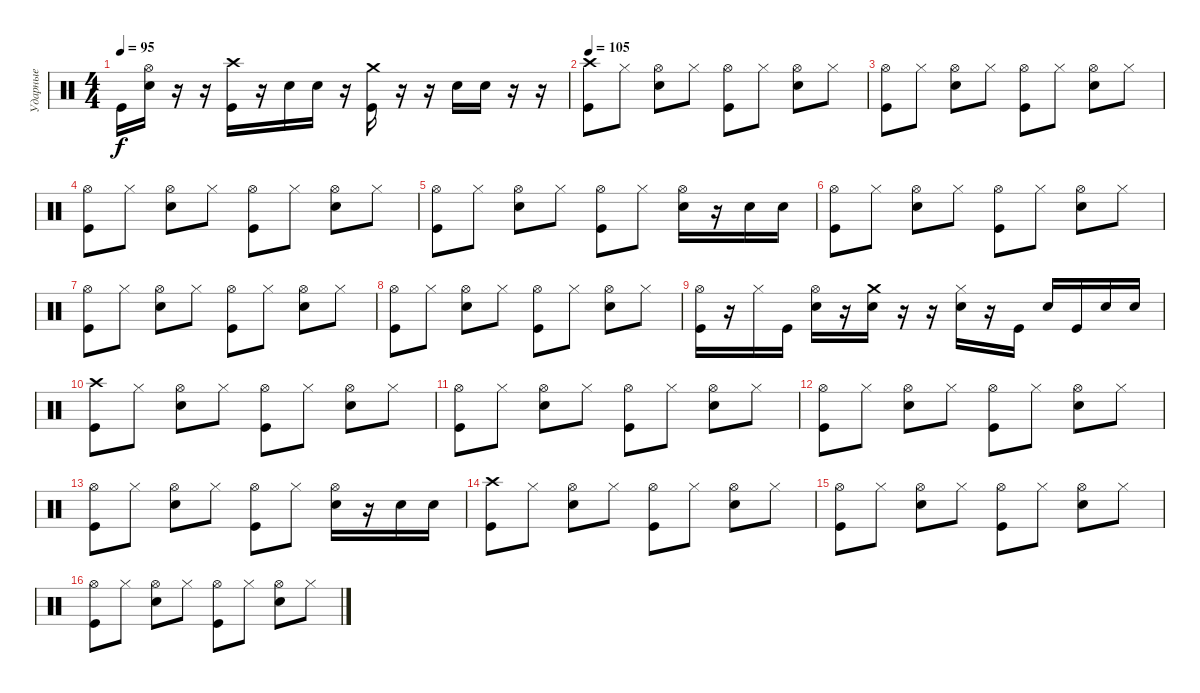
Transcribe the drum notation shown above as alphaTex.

\track ("Ударные" "Ударные") {instrument percussion}
\staff {score}
\articulation defaults
\ts (4 4)
\tempo 95
\clef neutral
\ks c "Kick (hit)".16{dy f}
("Hi-Hat (open)" "Snare (hit) 2").16 r.16 r.16 ("Crash high (hit)" "Kick (hit)").16 r.16 "Snare (hit) 2".16 "Snare (hit) 2".16 r.16 ("Crash medium (hit)" "Kick (hit)").16 r.16 r.16 "Snare (hit) 2".16 "Snare (hit) 2".16 r.16 r.16 |
\tempo 105
("Crash high (hit)" "Kick (hit)").8 "Hi-Hat (closed)".8 ("Hi-Hat (open)" "Snare (hit) 2").8 "Hi-Hat (closed)".8 ("Hi-Hat (open)" "Kick (hit)").8 "Hi-Hat (closed)".8 ("Hi-Hat (open)" "Snare (hit) 2").8 "Hi-Hat (closed)".8 |
("Hi-Hat (open)" "Kick (hit)").8 "Hi-Hat (closed)".8 ("Hi-Hat (open)" "Snare (hit) 2").8 "Hi-Hat (closed)".8 ("Hi-Hat (open)" "Kick (hit)").8 "Hi-Hat (closed)".8 ("Hi-Hat (open)" "Snare (hit) 2").8 "Hi-Hat (closed)".8 |
("Hi-Hat (open)" "Kick (hit)").8 "Hi-Hat (closed)".8 ("Hi-Hat (open)" "Snare (hit) 2").8 "Hi-Hat (closed)".8 ("Hi-Hat (open)" "Kick (hit)").8 "Hi-Hat (closed)".8 ("Hi-Hat (open)" "Snare (hit) 2").8 "Hi-Hat (closed)".8 |
("Hi-Hat (open)" "Kick (hit)").8 "Hi-Hat (closed)".8 ("Hi-Hat (open)" "Snare (hit) 2").8 "Hi-Hat (closed)".8 ("Hi-Hat (open)" "Kick (hit)").8 "Hi-Hat (closed)".8 ("Hi-Hat (open)" "Snare (hit) 2").16 r.16 "Snare (hit) 2".16 "Snare (hit) 2".16 |
("Hi-Hat (open)" "Kick (hit)").8 "Hi-Hat (closed)".8 ("Hi-Hat (open)" "Snare (hit) 2").8 "Hi-Hat (closed)".8 ("Hi-Hat (open)" "Kick (hit)").8 "Hi-Hat (closed)".8 ("Hi-Hat (open)" "Snare (hit) 2").8 "Hi-Hat (closed)".8 |
("Hi-Hat (open)" "Kick (hit)").8 "Hi-Hat (closed)".8 ("Hi-Hat (open)" "Snare (hit) 2").8 "Hi-Hat (closed)".8 ("Hi-Hat (open)" "Kick (hit)").8 "Hi-Hat (closed)".8 ("Hi-Hat (open)" "Snare (hit) 2").8 "Hi-Hat (closed)".8 |
("Hi-Hat (open)" "Kick (hit)").8 "Hi-Hat (closed)".8 ("Hi-Hat (open)" "Snare (hit) 2").8 "Hi-Hat (closed)".8 ("Hi-Hat (open)" "Kick (hit)").8 "Hi-Hat (closed)".8 ("Hi-Hat (open)" "Snare (hit) 2").8 "Hi-Hat (closed)".8 |
("Hi-Hat (open)" "Kick (hit)").16 r.16 "Hi-Hat (closed)".16 "Kick (hit)".16 ("Hi-Hat (open)" "Snare (hit) 2").16 r.16 ("Crash medium (hit)" "Snare (hit) 2").16 r.16 r.16 ("Hi-Hat (closed)" "Snare (hit) 2").16 r.16 "Kick (hit)".16 "Snare (hit) 2".16 "Kick (hit)".16 "Snare (hit) 2".16 "Snare (hit) 2".16 |
("Crash high (hit)" "Kick (hit)").8 "Hi-Hat (closed)".8 ("Hi-Hat (open)" "Snare (hit) 2").8 "Hi-Hat (closed)".8 ("Hi-Hat (open)" "Kick (hit)").8 "Hi-Hat (closed)".8 ("Hi-Hat (open)" "Snare (hit) 2").8 "Hi-Hat (closed)".8 |
("Hi-Hat (open)" "Kick (hit)").8 "Hi-Hat (closed)".8 ("Hi-Hat (open)" "Snare (hit) 2").8 "Hi-Hat (closed)".8 ("Hi-Hat (open)" "Kick (hit)").8 "Hi-Hat (closed)".8 ("Hi-Hat (open)" "Snare (hit) 2").8 "Hi-Hat (closed)".8 |
("Hi-Hat (open)" "Kick (hit)").8 "Hi-Hat (closed)".8 ("Hi-Hat (open)" "Snare (hit) 2").8 "Hi-Hat (closed)".8 ("Hi-Hat (open)" "Kick (hit)").8 "Hi-Hat (closed)".8 ("Hi-Hat (open)" "Snare (hit) 2").8 "Hi-Hat (closed)".8 |
("Hi-Hat (open)" "Kick (hit)").8 "Hi-Hat (closed)".8 ("Hi-Hat (open)" "Snare (hit) 2").8 "Hi-Hat (closed)".8 ("Hi-Hat (open)" "Kick (hit)").8 "Hi-Hat (closed)".8 ("Hi-Hat (open)" "Snare (hit) 2").16 r.16 "Snare (hit) 2".16 "Snare (hit) 2".16 |
("Crash high (hit)" "Kick (hit)").8 "Hi-Hat (closed)".8 ("Hi-Hat (open)" "Snare (hit) 2").8 "Hi-Hat (closed)".8 ("Hi-Hat (open)" "Kick (hit)").8 "Hi-Hat (closed)".8 ("Hi-Hat (open)" "Snare (hit) 2").8 "Hi-Hat (closed)".8 |
("Hi-Hat (open)" "Kick (hit)").8 "Hi-Hat (closed)".8 ("Hi-Hat (open)" "Snare (hit) 2").8 "Hi-Hat (closed)".8 ("Hi-Hat (open)" "Kick (hit)").8 "Hi-Hat (closed)".8 ("Hi-Hat (open)" "Snare (hit) 2").8 "Hi-Hat (closed)".8 |
("Hi-Hat (open)" "Kick (hit)").8 "Hi-Hat (closed)".8 ("Hi-Hat (open)" "Snare (hit) 2").8 "Hi-Hat (closed)".8 ("Hi-Hat (open)" "Kick (hit)").8 "Hi-Hat (closed)".8 ("Hi-Hat (open)" "Snare (hit) 2").8 "Hi-Hat (closed)".8
